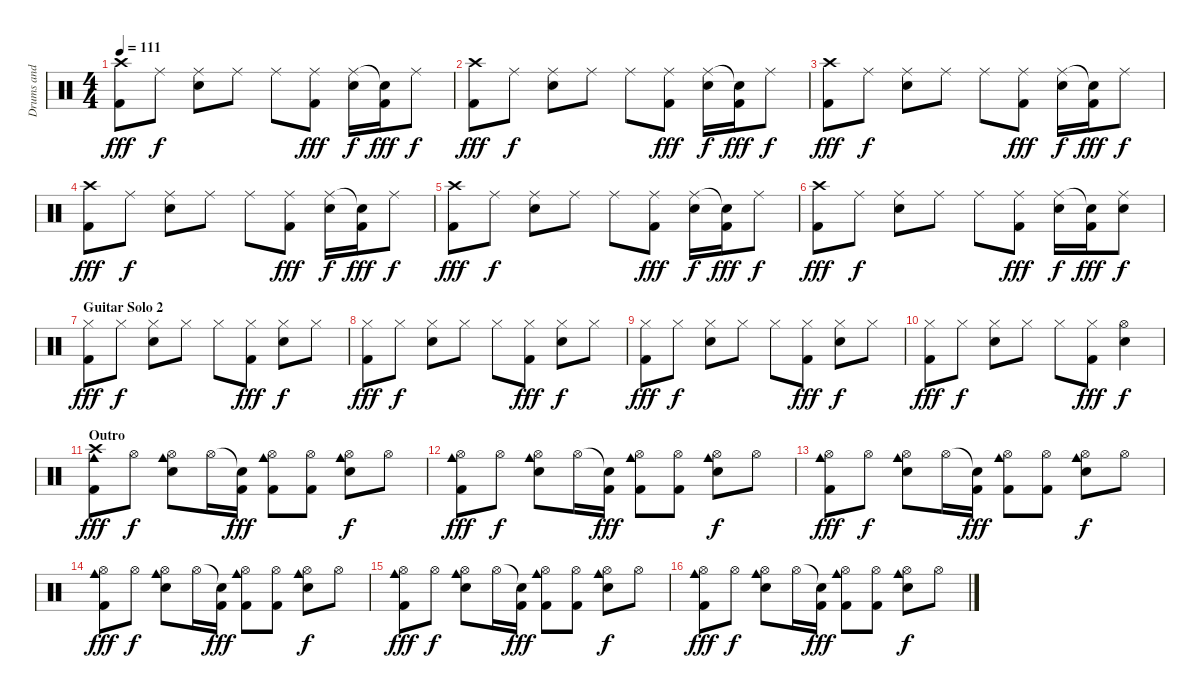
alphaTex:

\track ("Drums and Percussion" "Drums and ") {instrument percussion}
\staff {score}
\articulation defaults
\ts (4 4)
\tempo 111
\clef neutral
\ks c
("Crash high (hit)" "Kick (hit) 2").8{dy fff} "Ride (middle)".8{dy f} ("Ride (middle)" "Snare (hit) 2").8 "Ride (middle)".8 "Ride (middle)".8 ("Ride (middle)" "Kick (hit) 2").8{dy fff} ("Ride (middle)" "Snare (hit) 2").16{dy f} ("Snare (hit)"{t} "Kick (hit) 2").16{dy fff} "Ride (middle)".8{dy f} |
("Crash high (hit)" "Kick (hit) 2").8{dy fff} "Ride (middle)".8{dy f} ("Ride (middle)" "Snare (hit) 2").8 "Ride (middle)".8 "Ride (middle)".8 ("Ride (middle)" "Kick (hit) 2").8{dy fff} ("Ride (middle)" "Snare (hit) 2").16{dy f} ("Snare (hit)"{t} "Kick (hit) 2").16{dy fff} "Ride (middle)".8{dy f} |
("Crash high (hit)" "Kick (hit) 2").8{dy fff} "Ride (middle)".8{dy f} ("Ride (middle)" "Snare (hit) 2").8 "Ride (middle)".8 "Ride (middle)".8 ("Ride (middle)" "Kick (hit) 2").8{dy fff} ("Ride (middle)" "Snare (hit) 2").16{dy f} ("Snare (hit)"{t} "Kick (hit) 2").16{dy fff} "Ride (middle)".8{dy f} |
("Crash high (hit)" "Kick (hit) 2").8{dy fff} "Ride (middle)".8{dy f} ("Ride (middle)" "Snare (hit) 2").8 "Ride (middle)".8 "Ride (middle)".8 ("Ride (middle)" "Kick (hit) 2").8{dy fff} ("Ride (middle)" "Snare (hit) 2").16{dy f} ("Snare (hit)"{t} "Kick (hit) 2").16{dy fff} "Ride (middle)".8{dy f} |
("Crash high (hit)" "Kick (hit) 2").8{dy fff} "Ride (middle)".8{dy f} ("Ride (middle)" "Snare (hit) 2").8 "Ride (middle)".8 "Ride (middle)".8 ("Ride (middle)" "Kick (hit) 2").8{dy fff} ("Ride (middle)" "Snare (hit) 2").16{dy f} ("Snare (hit)"{t} "Kick (hit) 2").16{dy fff} "Ride (middle)".8{dy f} |
("Crash high (hit)" "Kick (hit) 2").8{dy fff} "Ride (middle)".8{dy f} ("Ride (middle)" "Snare (hit) 2").8 "Ride (middle)".8 "Ride (middle)".8 ("Ride (middle)" "Kick (hit) 2").8{dy fff} ("Ride (middle)" "Snare (hit) 2").16{dy f} ("Snare (hit)"{t} "Kick (hit) 2").16{dy fff} ("Ride (middle)" "Snare (hit) 2").8{dy f} |
\section ("" "Guitar Solo 2")
("Hi-Hat (closed)" "Kick (hit) 2").8{dy fff} "Hi-Hat (closed)".8{dy f} ("Hi-Hat (closed)" "Snare (hit) 2").8 "Hi-Hat (closed)".8 "Hi-Hat (closed)".8 ("Hi-Hat (closed)" "Kick (hit) 2").8{dy fff} ("Hi-Hat (closed)" "Snare (hit) 2").8{dy f} "Hi-Hat (closed)".8 |
("Hi-Hat (closed)" "Kick (hit) 2").8{dy fff} "Hi-Hat (closed)".8{dy f} ("Hi-Hat (closed)" "Snare (hit) 2").8 "Hi-Hat (closed)".8 "Hi-Hat (closed)".8 ("Hi-Hat (closed)" "Kick (hit) 2").8{dy fff} ("Hi-Hat (closed)" "Snare (hit) 2").8{dy f} "Hi-Hat (closed)".8 |
("Hi-Hat (closed)" "Kick (hit) 2").8{dy fff} "Hi-Hat (closed)".8{dy f} ("Hi-Hat (closed)" "Snare (hit) 2").8 "Hi-Hat (closed)".8 "Hi-Hat (closed)".8 ("Hi-Hat (closed)" "Kick (hit) 2").8{dy fff} ("Hi-Hat (closed)" "Snare (hit) 2").8{dy f} "Hi-Hat (closed)".8 |
("Hi-Hat (closed)" "Kick (hit) 2").8{dy fff} "Hi-Hat (closed)".8{dy f} ("Hi-Hat (closed)" "Snare (hit) 2").8 "Hi-Hat (closed)".8 "Hi-Hat (closed)".8 ("Hi-Hat (closed)" "Kick (hit) 2").8{dy fff} ("Hi-Hat (open)" "Snare (hit) 2").4{dy f} |
\section ("" "Outro")
("Crash high (hit)" "Cowbell medium (hit)" "Kick (hit) 2").8{dy fff} "Hi-Hat (open)".8{dy f} ("Hi-Hat (open)" "Cowbell medium (hit)" "Snare (hit) 2").8 "Hi-Hat (open)".16 ("Snare (hit)"{t} "Kick (hit) 2").16{dy fff} ("Hi-Hat (open)" "Cowbell medium (hit)" "Kick (hit) 2").8 ("Hi-Hat (open)" "Kick (hit) 2").8 ("Hi-Hat (open)" "Cowbell medium (hit)" "Snare (hit) 2").8{dy f} "Hi-Hat (open)".8 |
("Hi-Hat (open)" "Cowbell medium (hit)" "Kick (hit) 2").8{dy fff} "Hi-Hat (open)".8{dy f} ("Hi-Hat (open)" "Cowbell medium (hit)" "Snare (hit) 2").8 "Hi-Hat (open)".16 ("Snare (hit)"{t} "Kick (hit) 2").16{dy fff} ("Hi-Hat (open)" "Cowbell medium (hit)" "Kick (hit) 2").8 ("Hi-Hat (open)" "Kick (hit) 2").8 ("Hi-Hat (open)" "Cowbell medium (hit)" "Snare (hit) 2").8{dy f} "Hi-Hat (open)".8 |
("Hi-Hat (open)" "Cowbell medium (hit)" "Kick (hit) 2").8{dy fff} "Hi-Hat (open)".8{dy f} ("Hi-Hat (open)" "Cowbell medium (hit)" "Snare (hit) 2").8 "Hi-Hat (open)".16 ("Snare (hit)"{t} "Kick (hit) 2").16{dy fff} ("Hi-Hat (open)" "Cowbell medium (hit)" "Kick (hit) 2").8 ("Hi-Hat (open)" "Kick (hit) 2").8 ("Hi-Hat (open)" "Cowbell medium (hit)" "Snare (hit) 2").8{dy f} "Hi-Hat (open)".8 |
("Hi-Hat (open)" "Cowbell medium (hit)" "Kick (hit) 2").8{dy fff} "Hi-Hat (open)".8{dy f} ("Hi-Hat (open)" "Cowbell medium (hit)" "Snare (hit) 2").8 "Hi-Hat (open)".16 ("Snare (hit)"{t} "Kick (hit) 2").16{dy fff} ("Hi-Hat (open)" "Cowbell medium (hit)" "Kick (hit) 2").8 ("Hi-Hat (open)" "Kick (hit) 2").8 ("Hi-Hat (open)" "Cowbell medium (hit)" "Snare (hit) 2").8{dy f} "Hi-Hat (open)".8 |
("Hi-Hat (open)" "Cowbell medium (hit)" "Kick (hit) 2").8{dy fff} "Hi-Hat (open)".8{dy f} ("Hi-Hat (open)" "Cowbell medium (hit)" "Snare (hit) 2").8 "Hi-Hat (open)".16 ("Snare (hit)"{t} "Kick (hit) 2").16{dy fff} ("Hi-Hat (open)" "Cowbell medium (hit)" "Kick (hit) 2").8 ("Hi-Hat (open)" "Kick (hit) 2").8 ("Hi-Hat (open)" "Cowbell medium (hit)" "Snare (hit) 2").8{dy f} "Hi-Hat (open)".8 |
("Hi-Hat (open)" "Cowbell medium (hit)" "Kick (hit) 2").8{dy fff} "Hi-Hat (open)".8{dy f} ("Hi-Hat (open)" "Cowbell medium (hit)" "Snare (hit) 2").8 "Hi-Hat (open)".16 ("Snare (hit)"{t} "Kick (hit) 2").16{dy fff} ("Hi-Hat (open)" "Cowbell medium (hit)" "Kick (hit) 2").8 ("Hi-Hat (open)" "Kick (hit) 2").8 ("Hi-Hat (open)" "Cowbell medium (hit)" "Snare (hit) 2").8{dy f} "Hi-Hat (open)".8
